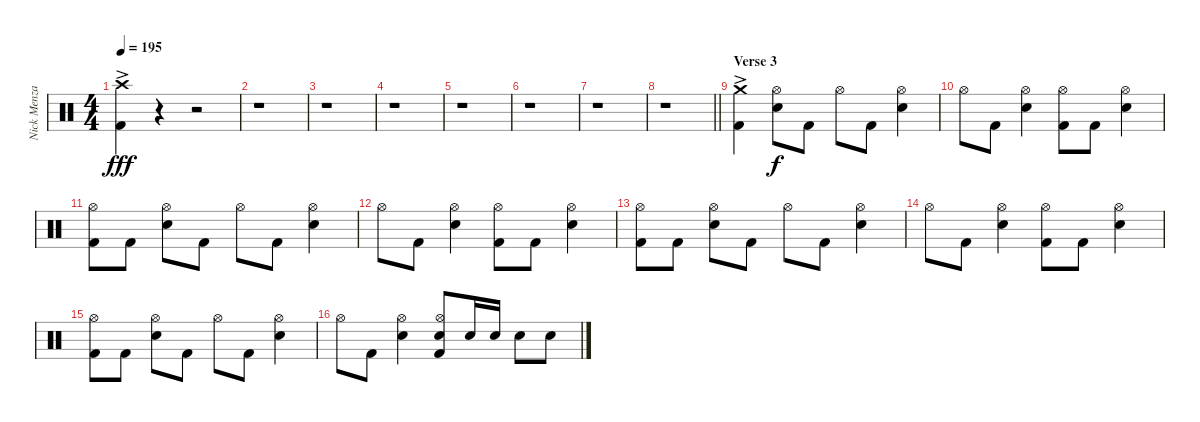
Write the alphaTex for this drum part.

\track ("Nick Menza" "Nick Menza") {instrument percussion}
\staff {score}
\articulation defaults
\ts (4 4)
\tempo 195
\clef neutral
\ks c
("Crash high (hit)"{ac} "Kick (hit) 2").4{dy fff} r.4 r.2 |
r.1 |
r.1 |
r.1 |
r.1 |
r.1 |
r.1 |
\barLineRight lightlight
r.1 |
\section ("" "Verse 3")
("Crash medium (hit)"{ac} "Kick (hit) 2").4 ("Hi-Hat (open)" "Snare (hit) 2").8{dy f} "Kick (hit) 2".8 "Hi-Hat (open)".8 "Kick (hit) 2".8 ("Hi-Hat (open)" "Snare (hit) 2").4 |
"Hi-Hat (open)".8 "Kick (hit) 2".8 ("Hi-Hat (open)" "Snare (hit) 2").4 ("Hi-Hat (open)" "Kick (hit) 2").8 "Kick (hit) 2".8 ("Hi-Hat (open)" "Snare (hit) 2").4 |
("Hi-Hat (open)" "Kick (hit) 2").8 "Kick (hit) 2".8 ("Hi-Hat (open)" "Snare (hit) 2").8 "Kick (hit) 2".8 "Hi-Hat (open)".8 "Kick (hit) 2".8 ("Hi-Hat (open)" "Snare (hit) 2").4 |
"Hi-Hat (open)".8 "Kick (hit) 2".8 ("Hi-Hat (open)" "Snare (hit) 2").4 ("Hi-Hat (open)" "Kick (hit) 2").8 "Kick (hit) 2".8 ("Hi-Hat (open)" "Snare (hit) 2").4 |
("Hi-Hat (open)" "Kick (hit) 2").8 "Kick (hit) 2".8 ("Hi-Hat (open)" "Snare (hit) 2").8 "Kick (hit) 2".8 "Hi-Hat (open)".8 "Kick (hit) 2".8 ("Hi-Hat (open)" "Snare (hit) 2").4 |
"Hi-Hat (open)".8 "Kick (hit) 2".8 ("Hi-Hat (open)" "Snare (hit) 2").4 ("Hi-Hat (open)" "Kick (hit) 2").8 "Kick (hit) 2".8 ("Hi-Hat (open)" "Snare (hit) 2").4 |
("Hi-Hat (open)" "Kick (hit) 2").8 "Kick (hit) 2".8 ("Hi-Hat (open)" "Snare (hit) 2").8 "Kick (hit) 2".8 "Hi-Hat (open)".8 "Kick (hit) 2".8 ("Hi-Hat (open)" "Snare (hit) 2").4 |
"Hi-Hat (open)".8 "Kick (hit) 2".8 ("Hi-Hat (open)" "Snare (hit) 2").4 ("Hi-Hat (open)" "Snare (hit) 2" "Kick (hit) 2").8 "Snare (hit) 2".16 "Snare (hit) 2".16 "Snare (hit) 2".8 "Snare (hit) 2".8
